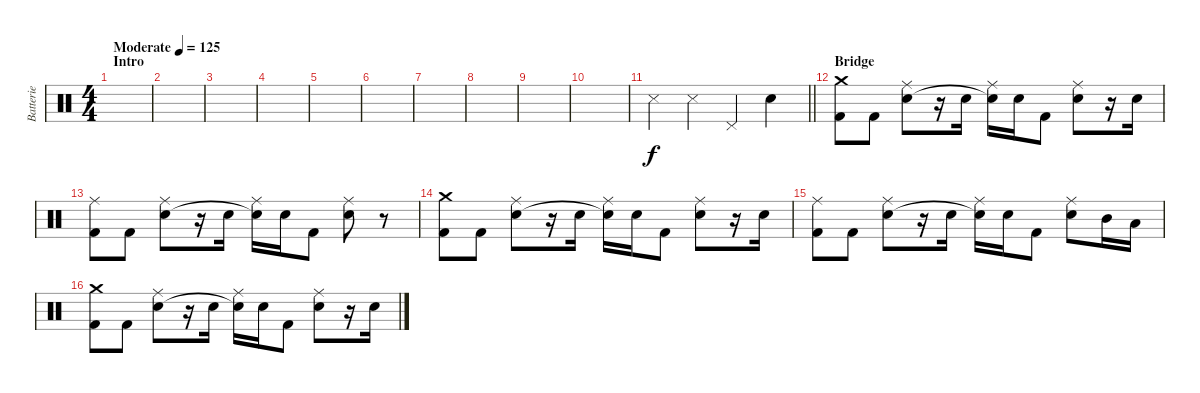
\track ("Batterie" "Batterie") {instrument percussion}
\staff {score}
\articulation defaults
\ts (4 4)
\section ("" "Intro")
\tempo (125 "Moderate")
\clef neutral
\ks c
|
|
|
|
|
|
|
|
|
|
\barLineRight lightlight "Snare (side stick) 3".4 "Snare (side stick) 3".4 "Pedal Hi-Hat (hit)".4 "Electric Snare (hit)".4
|
\section ("" "Bridge")
("Crash medium (hit)" "Kick (hit) 2").8 "Kick (hit) 2".8 ("Ride (middle)" "Electric Snare (hit)").8 r.16 "Electric Snare (hit)".16 ("Ride (middle)" "Electric Snare (hit)"{t}).16 "Electric Snare (hit)".16 "Kick (hit) 2".8 ("Ride (middle)" "Electric Snare (hit)").8 r.16 "Electric Snare (hit)".16 |
("Ride (middle)" "Kick (hit) 2").8 "Kick (hit) 2".8 ("Ride (middle)" "Electric Snare (hit)").8 r.16 "Electric Snare (hit)".16 ("Ride (middle)" "Electric Snare (hit)"{t}).16 "Electric Snare (hit)".16 "Kick (hit) 2".8 ("Ride (middle)" "Electric Snare (hit)").8 r.8 |
("Crash medium (hit)" "Kick (hit) 2").8 "Kick (hit) 2".8 ("Ride (middle)" "Electric Snare (hit)").8 r.16 "Electric Snare (hit)".16 ("Ride (middle)" "Electric Snare (hit)"{t}).16 "Electric Snare (hit)".16 "Kick (hit) 2".8 ("Ride (middle)" "Electric Snare (hit)").8 r.16 "Electric Snare (hit)".16 |
("Ride (middle)" "Kick (hit) 2").8 "Kick (hit) 2".8 ("Ride (middle)" "Electric Snare (hit)").8 r.16 "Electric Snare (hit)".16 ("Ride (middle)" "Electric Snare (hit)"{t}).16 "Electric Snare (hit)".16 "Kick (hit) 2".8 ("Ride (middle)" "Electric Snare (hit)").8 "Mid Tom (hit)".16 "Low Tom (hit)".16 |
("Crash medium (hit)" "Kick (hit) 2").8 "Kick (hit) 2".8 ("Ride (middle)" "Electric Snare (hit)").8 r.16 "Electric Snare (hit)".16 ("Ride (middle)" "Electric Snare (hit)"{t}).16 "Electric Snare (hit)".16 "Kick (hit) 2".8 ("Ride (middle)" "Electric Snare (hit)").8 r.16 "Electric Snare (hit)".16
